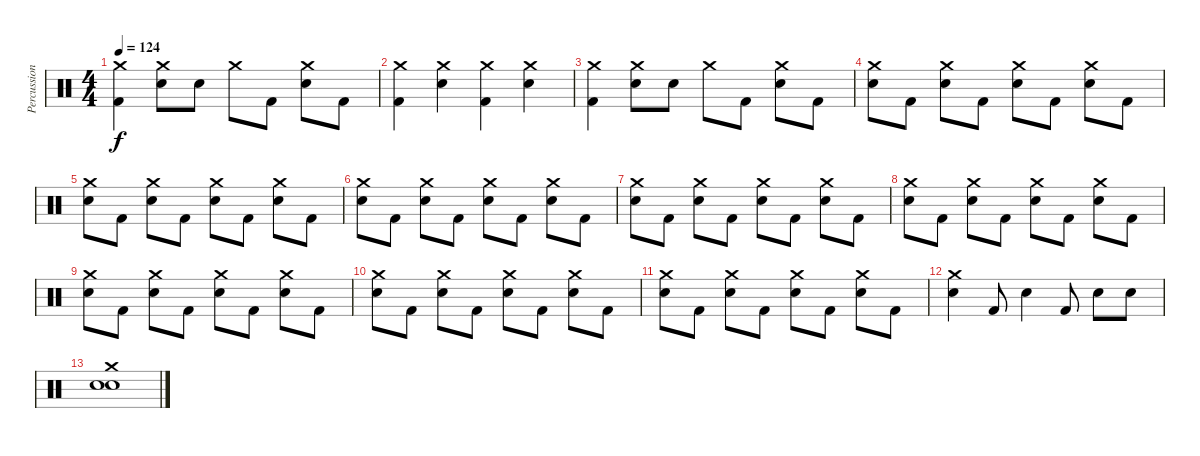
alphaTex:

\track ("Percussion" "Percussion") {instrument percussion}
\staff {score}
\articulation defaults
\ts (4 4)
\tempo 124
\clef neutral
\ks c
("Crash medium (hit)" "Kick (hit) 2").4{dy f} ("Crash medium (hit)" "Snare (hit) 2").8 "Snare (hit) 2".8 "Crash medium (hit)".8 "Kick (hit) 2".8 ("Crash medium (hit)" "Snare (hit) 2").8 "Kick (hit) 2".8 |
("Crash medium (hit)" "Kick (hit) 2").4 ("Crash medium (hit)" "Snare (hit) 2").4 ("Crash medium (hit)" "Kick (hit) 2").4 ("Crash medium (hit)" "Snare (hit) 2").4 |
("Crash medium (hit)" "Kick (hit) 2").4 ("Crash medium (hit)" "Snare (hit) 2").8 "Snare (hit) 2".8 "Crash medium (hit)".8 "Kick (hit) 2".8 ("Crash medium (hit)" "Snare (hit) 2").8 "Kick (hit) 2".8 |
("Crash medium (hit)" "Snare (hit) 2").8 "Kick (hit) 2".8 ("Crash medium (hit)" "Snare (hit) 2").8 "Kick (hit) 2".8 ("Crash medium (hit)" "Snare (hit) 2").8 "Kick (hit) 2".8 ("Crash medium (hit)" "Snare (hit) 2").8 "Kick (hit) 2".8 |
("Crash medium (hit)" "Snare (hit) 2").8 "Kick (hit) 2".8 ("Crash medium (hit)" "Snare (hit) 2").8 "Kick (hit) 2".8 ("Crash medium (hit)" "Snare (hit) 2").8 "Kick (hit) 2".8 ("Crash medium (hit)" "Snare (hit) 2").8 "Kick (hit) 2".8 |
("Crash medium (hit)" "Snare (hit) 2").8 "Kick (hit) 2".8 ("Crash medium (hit)" "Snare (hit) 2").8 "Kick (hit) 2".8 ("Crash medium (hit)" "Snare (hit) 2").8 "Kick (hit) 2".8 ("Crash medium (hit)" "Snare (hit) 2").8 "Kick (hit) 2".8 |
("Crash medium (hit)" "Snare (hit) 2").8 "Kick (hit) 2".8 ("Crash medium (hit)" "Snare (hit) 2").8 "Kick (hit) 2".8 ("Crash medium (hit)" "Snare (hit) 2").8 "Kick (hit) 2".8 ("Crash medium (hit)" "Snare (hit) 2").8 "Kick (hit) 2".8 |
("Crash medium (hit)" "Snare (hit) 2").8 "Kick (hit) 2".8 ("Crash medium (hit)" "Snare (hit) 2").8 "Kick (hit) 2".8 ("Crash medium (hit)" "Snare (hit) 2").8 "Kick (hit) 2".8 ("Crash medium (hit)" "Snare (hit) 2").8 "Kick (hit) 2".8 |
("Crash medium (hit)" "Snare (hit) 2").8 "Kick (hit) 2".8 ("Crash medium (hit)" "Snare (hit) 2").8 "Kick (hit) 2".8 ("Crash medium (hit)" "Snare (hit) 2").8 "Kick (hit) 2".8 ("Crash medium (hit)" "Snare (hit) 2").8 "Kick (hit) 2".8 |
("Crash medium (hit)" "Snare (hit) 2").8 "Kick (hit) 2".8 ("Crash medium (hit)" "Snare (hit) 2").8 "Kick (hit) 2".8 ("Crash medium (hit)" "Snare (hit) 2").8 "Kick (hit) 2".8 ("Crash medium (hit)" "Snare (hit) 2").8 "Kick (hit) 2".8 |
("Crash medium (hit)" "Snare (hit) 2").8 "Kick (hit) 2".8 ("Crash medium (hit)" "Snare (hit) 2").8 "Kick (hit) 2".8 ("Crash medium (hit)" "Snare (hit) 2").8 "Kick (hit) 2".8 ("Crash medium (hit)" "Snare (hit) 2").8 "Kick (hit) 2".8 |
("Crash medium (hit)" "Snare (hit) 2").4 "Kick (hit) 2".8 "Snare (hit) 2".4 "Kick (hit) 2".8 "Snare (hit) 2".8 "Snare (hit) 2".8 |
("Crash medium (hit)" "Snare (hit) 2" "Snare (hit) 2").1
